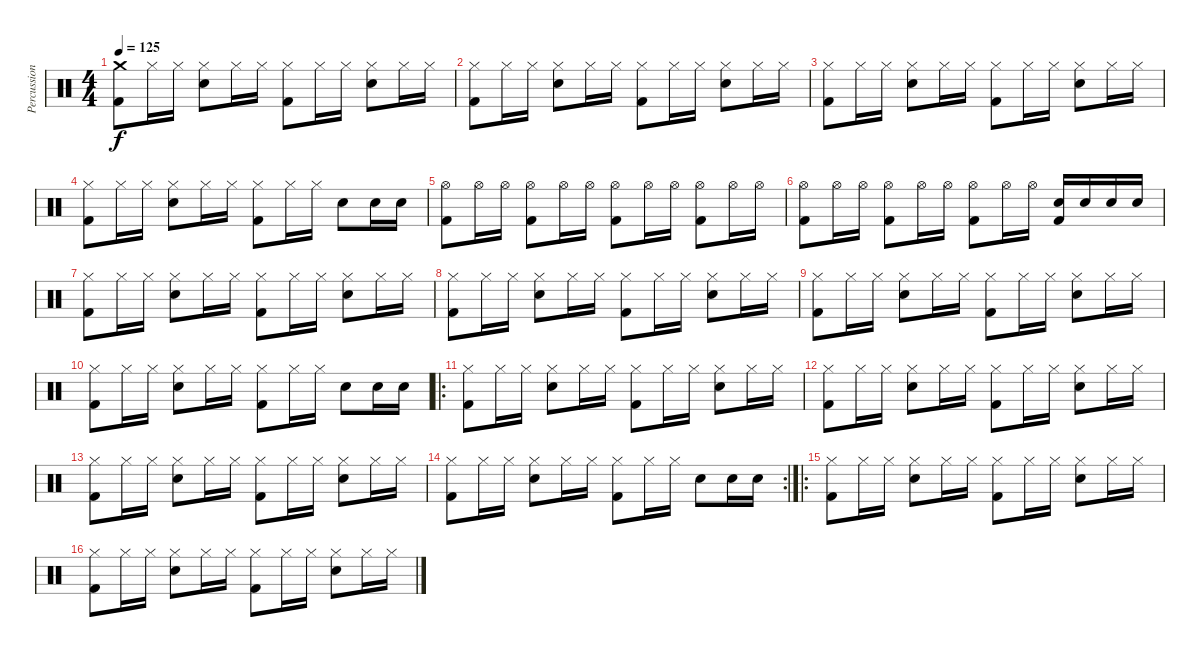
\track ("Percussion" "Percussion") {instrument percussion}
\staff {score}
\articulation defaults
\ts (4 4)
\tempo 125
\clef neutral
\ks c
("Crash medium (hit)" "Kick (hit) 2").8{dy f} "Hi-Hat (closed)".16 "Hi-Hat (closed)".16 ("Hi-Hat (closed)" "Snare (hit) 2").8 "Hi-Hat (closed)".16 "Hi-Hat (closed)".16 ("Hi-Hat (closed)" "Kick (hit) 2").8 "Hi-Hat (closed)".16 "Hi-Hat (closed)".16 ("Hi-Hat (closed)" "Snare (hit) 2").8 "Hi-Hat (closed)".16 "Hi-Hat (closed)".16 |
("Hi-Hat (closed)" "Kick (hit) 2").8 "Hi-Hat (closed)".16 "Hi-Hat (closed)".16 ("Hi-Hat (closed)" "Snare (hit) 2").8 "Hi-Hat (closed)".16 "Hi-Hat (closed)".16 ("Hi-Hat (closed)" "Kick (hit) 2").8 "Hi-Hat (closed)".16 "Hi-Hat (closed)".16 ("Hi-Hat (closed)" "Snare (hit) 2").8 "Hi-Hat (closed)".16 "Hi-Hat (closed)".16 |
("Hi-Hat (closed)" "Kick (hit) 2").8 "Hi-Hat (closed)".16 "Hi-Hat (closed)".16 ("Hi-Hat (closed)" "Snare (hit) 2").8 "Hi-Hat (closed)".16 "Hi-Hat (closed)".16 ("Hi-Hat (closed)" "Kick (hit) 2").8 "Hi-Hat (closed)".16 "Hi-Hat (closed)".16 ("Hi-Hat (closed)" "Snare (hit) 2").8 "Hi-Hat (closed)".16 "Hi-Hat (closed)".16 |
("Hi-Hat (closed)" "Kick (hit) 2").8 "Hi-Hat (closed)".16 "Hi-Hat (closed)".16 ("Hi-Hat (closed)" "Snare (hit) 2").8 "Hi-Hat (closed)".16 "Hi-Hat (closed)".16 ("Hi-Hat (closed)" "Kick (hit) 2").8 "Hi-Hat (closed)".16 "Hi-Hat (closed)".16 "Snare (hit) 2".8 "Snare (hit) 2".16 "Snare (hit) 2".16 |
("Hi-Hat (open)" "Kick (hit) 2").8 "Hi-Hat (open)".16 "Hi-Hat (open)".16 ("Hi-Hat (open)" "Kick (hit) 2").8 "Hi-Hat (open)".16 "Hi-Hat (open)".16 ("Hi-Hat (open)" "Kick (hit) 2").8 "Hi-Hat (open)".16 "Hi-Hat (open)".16 ("Hi-Hat (open)" "Kick (hit) 2").8 "Hi-Hat (open)".16 "Hi-Hat (open)".16 |
("Hi-Hat (open)" "Kick (hit) 2").8 "Hi-Hat (open)".16 "Hi-Hat (open)".16 ("Hi-Hat (open)" "Kick (hit) 2").8 "Hi-Hat (open)".16 "Hi-Hat (open)".16 ("Hi-Hat (open)" "Kick (hit) 2").8 "Hi-Hat (open)".16 "Hi-Hat (open)".16 ("Snare (hit) 2" "Kick (hit) 2").16 "Snare (hit) 2".16 "Snare (hit) 2".16 "Snare (hit) 2".16 |
("Hi-Hat (closed)" "Kick (hit) 2").8 "Hi-Hat (closed)".16 "Hi-Hat (closed)".16 ("Hi-Hat (closed)" "Snare (hit) 2").8 "Hi-Hat (closed)".16 "Hi-Hat (closed)".16 ("Hi-Hat (closed)" "Kick (hit) 2").8 "Hi-Hat (closed)".16 "Hi-Hat (closed)".16 ("Hi-Hat (closed)" "Snare (hit) 2").8 "Hi-Hat (closed)".16 "Hi-Hat (closed)".16 |
("Hi-Hat (closed)" "Kick (hit) 2").8 "Hi-Hat (closed)".16 "Hi-Hat (closed)".16 ("Hi-Hat (closed)" "Snare (hit) 2").8 "Hi-Hat (closed)".16 "Hi-Hat (closed)".16 ("Hi-Hat (closed)" "Kick (hit) 2").8 "Hi-Hat (closed)".16 "Hi-Hat (closed)".16 ("Hi-Hat (closed)" "Snare (hit) 2").8 "Hi-Hat (closed)".16 "Hi-Hat (closed)".16 |
("Hi-Hat (closed)" "Kick (hit) 2").8 "Hi-Hat (closed)".16 "Hi-Hat (closed)".16 ("Hi-Hat (closed)" "Snare (hit) 2").8 "Hi-Hat (closed)".16 "Hi-Hat (closed)".16 ("Hi-Hat (closed)" "Kick (hit) 2").8 "Hi-Hat (closed)".16 "Hi-Hat (closed)".16 ("Hi-Hat (closed)" "Snare (hit) 2").8 "Hi-Hat (closed)".16 "Hi-Hat (closed)".16 |
("Hi-Hat (closed)" "Kick (hit) 2").8 "Hi-Hat (closed)".16 "Hi-Hat (closed)".16 ("Hi-Hat (closed)" "Snare (hit) 2").8 "Hi-Hat (closed)".16 "Hi-Hat (closed)".16 ("Hi-Hat (closed)" "Kick (hit) 2").8 "Hi-Hat (closed)".16 "Hi-Hat (closed)".16 "Snare (hit) 2".8 "Snare (hit) 2".16 "Snare (hit) 2".16 |
\ro
("Hi-Hat (closed)" "Kick (hit) 2").8 "Hi-Hat (closed)".16 "Hi-Hat (closed)".16 ("Hi-Hat (closed)" "Snare (hit) 2").8 "Hi-Hat (closed)".16 "Hi-Hat (closed)".16 ("Hi-Hat (closed)" "Kick (hit) 2").8 "Hi-Hat (closed)".16 "Hi-Hat (closed)".16 ("Hi-Hat (closed)" "Snare (hit) 2").8 "Hi-Hat (closed)".16 "Hi-Hat (closed)".16 |
("Hi-Hat (closed)" "Kick (hit) 2").8 "Hi-Hat (closed)".16 "Hi-Hat (closed)".16 ("Hi-Hat (closed)" "Snare (hit) 2").8 "Hi-Hat (closed)".16 "Hi-Hat (closed)".16 ("Hi-Hat (closed)" "Kick (hit) 2").8 "Hi-Hat (closed)".16 "Hi-Hat (closed)".16 ("Hi-Hat (closed)" "Snare (hit) 2").8 "Hi-Hat (closed)".16 "Hi-Hat (closed)".16 |
("Hi-Hat (closed)" "Kick (hit) 2").8 "Hi-Hat (closed)".16 "Hi-Hat (closed)".16 ("Hi-Hat (closed)" "Snare (hit) 2").8 "Hi-Hat (closed)".16 "Hi-Hat (closed)".16 ("Hi-Hat (closed)" "Kick (hit) 2").8 "Hi-Hat (closed)".16 "Hi-Hat (closed)".16 ("Hi-Hat (closed)" "Snare (hit) 2").8 "Hi-Hat (closed)".16 "Hi-Hat (closed)".16 |
\rc 2
("Hi-Hat (closed)" "Kick (hit) 2").8 "Hi-Hat (closed)".16 "Hi-Hat (closed)".16 ("Hi-Hat (closed)" "Snare (hit) 2").8 "Hi-Hat (closed)".16 "Hi-Hat (closed)".16 ("Hi-Hat (closed)" "Kick (hit) 2").8 "Hi-Hat (closed)".16 "Hi-Hat (closed)".16 "Snare (hit) 2".8 "Snare (hit) 2".16 "Snare (hit) 2".16 |
\ro
("Hi-Hat (closed)" "Kick (hit) 2").8 "Hi-Hat (closed)".16 "Hi-Hat (closed)".16 ("Hi-Hat (closed)" "Snare (hit) 2").8 "Hi-Hat (closed)".16 "Hi-Hat (closed)".16 ("Hi-Hat (closed)" "Kick (hit) 2").8 "Hi-Hat (closed)".16 "Hi-Hat (closed)".16 ("Hi-Hat (closed)" "Snare (hit) 2").8 "Hi-Hat (closed)".16 "Hi-Hat (closed)".16 |
("Hi-Hat (closed)" "Kick (hit) 2").8 "Hi-Hat (closed)".16 "Hi-Hat (closed)".16 ("Hi-Hat (closed)" "Snare (hit) 2").8 "Hi-Hat (closed)".16 "Hi-Hat (closed)".16 ("Hi-Hat (closed)" "Kick (hit) 2").8 "Hi-Hat (closed)".16 "Hi-Hat (closed)".16 ("Hi-Hat (closed)" "Snare (hit) 2").8 "Hi-Hat (closed)".16 "Hi-Hat (closed)".16
